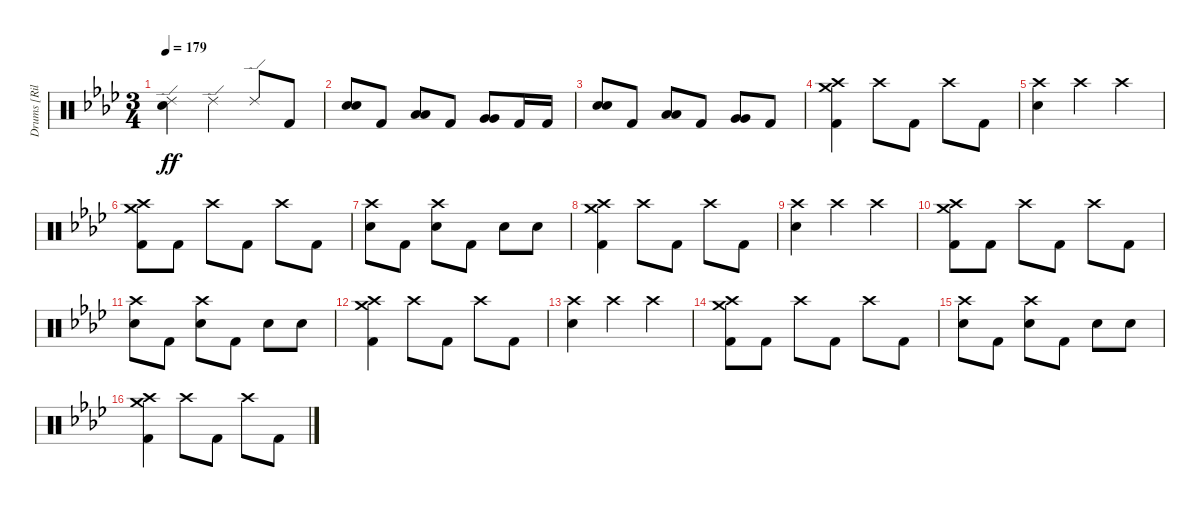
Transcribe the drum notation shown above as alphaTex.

\track ("Drums [Riley]" "Drums [Ril") {instrument percussion}
\staff {score}
\articulation defaults
\ts (3 4)
\tempo 179
\clef neutral
\ks ab
("Ride (edge) 2" "Electric Snare (hit)").4{dy ff} "Ride (edge) 2".4 "Ride (edge) 2".8 "Kick (hit) 2".8 |
("Electric Snare (hit)" "Electric Snare (hit)").8{bu 60} "Kick (hit) 2".8 ("Low Tom (hit)" "Low Tom (hit)").8{bu 60} "Kick (hit) 2".8 ("Very Low Tom (hit)" "Very Low Tom (hit)").8{bu 60} "Kick (hit) 2".16 "Kick (hit) 2".16 |
("Electric Snare (hit)" "Electric Snare (hit)").8{bu 60} "Kick (hit) 2".8 ("Low Tom (hit)" "Low Tom (hit)").8{bu 60} "Kick (hit) 2".8 ("Very Low Tom (hit)" "Very Low Tom (hit)").8{bu 60} "Kick (hit) 2".8 |
("Crash medium (hit)" "Crash high (hit)" "Kick (hit) 2").4 "Crash high (hit)".8 "Kick (hit) 2".8 "Crash high (hit)".8 "Kick (hit) 2".8 |
("Crash high (hit)" "Electric Snare (hit)").4 "Crash high (hit)".4 "Crash high (hit)".4 |
("Crash medium (hit)" "Crash high (hit)" "Kick (hit) 2").8 "Kick (hit) 2".8 "Crash high (hit)".8 "Kick (hit) 2".8 "Crash high (hit)".8 "Kick (hit) 2".8 |
("Crash high (hit)" "Electric Snare (hit)").8 "Kick (hit) 2".8 ("Crash high (hit)" "Electric Snare (hit)").8 "Kick (hit) 2".8 "Electric Snare (hit)".8 "Electric Snare (hit)".8 |
("Crash medium (hit)" "Crash high (hit)" "Kick (hit) 2").4 "Crash high (hit)".8 "Kick (hit) 2".8 "Crash high (hit)".8 "Kick (hit) 2".8 |
("Crash high (hit)" "Electric Snare (hit)").4 "Crash high (hit)".4 "Crash high (hit)".4 |
("Crash medium (hit)" "Crash high (hit)" "Kick (hit) 2").8 "Kick (hit) 2".8 "Crash high (hit)".8 "Kick (hit) 2".8 "Crash high (hit)".8 "Kick (hit) 2".8 |
("Crash high (hit)" "Electric Snare (hit)").8 "Kick (hit) 2".8 ("Crash high (hit)" "Electric Snare (hit)").8 "Kick (hit) 2".8 "Electric Snare (hit)".8 "Electric Snare (hit)".8 |
("Crash medium (hit)" "Crash high (hit)" "Kick (hit) 2").4 "Crash high (hit)".8 "Kick (hit) 2".8 "Crash high (hit)".8 "Kick (hit) 2".8 |
("Crash high (hit)" "Electric Snare (hit)").4 "Crash high (hit)".4 "Crash high (hit)".4 |
("Crash medium (hit)" "Crash high (hit)" "Kick (hit) 2").8 "Kick (hit) 2".8 "Crash high (hit)".8 "Kick (hit) 2".8 "Crash high (hit)".8 "Kick (hit) 2".8 |
("Crash high (hit)" "Electric Snare (hit)").8 "Kick (hit) 2".8 ("Crash high (hit)" "Electric Snare (hit)").8 "Kick (hit) 2".8 "Electric Snare (hit)".8 "Electric Snare (hit)".8 |
("Crash medium (hit)" "Crash high (hit)" "Kick (hit) 2").4 "Crash high (hit)".8 "Kick (hit) 2".8 "Crash high (hit)".8 "Kick (hit) 2".8
